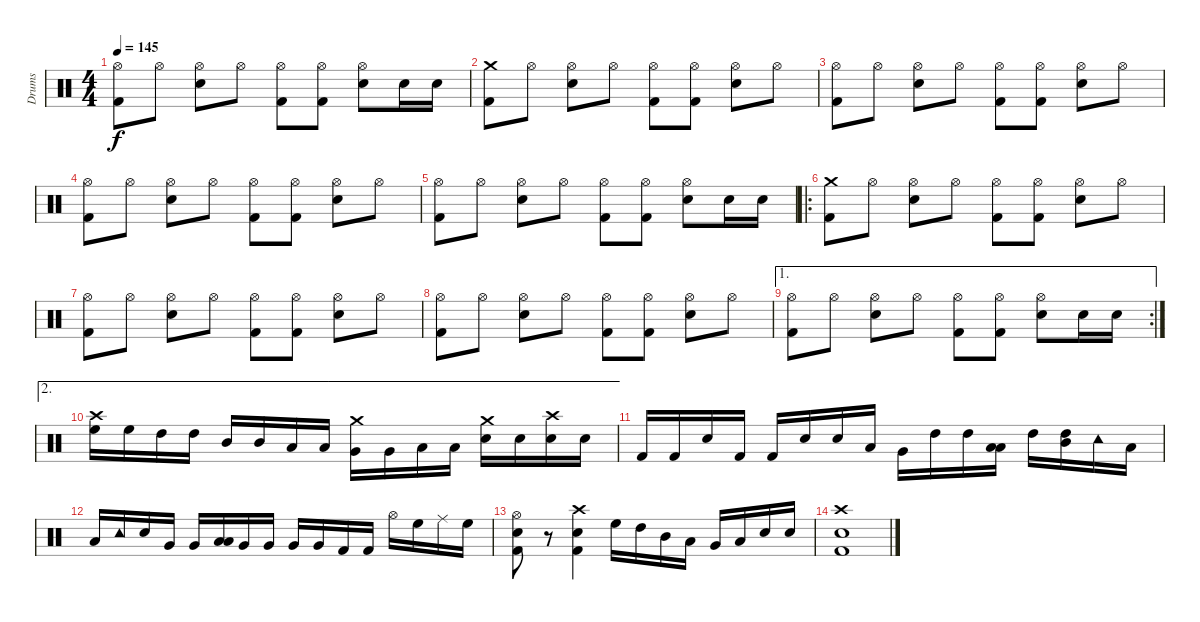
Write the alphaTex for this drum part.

\track ("Drums" "Drums") {instrument percussion}
\staff {score}
\articulation defaults
\ts (4 4)
\tempo 145
\clef neutral
\ks c
("Hi-Hat (open)" "Kick (hit) 2").8{dy f} "Hi-Hat (open)".8 ("Hi-Hat (open)" "Electric Snare (hit)").8 "Hi-Hat (open)".8 ("Hi-Hat (open)" "Kick (hit) 2").8 ("Hi-Hat (open)" "Kick (hit) 2").8 ("Hi-Hat (open)" "Electric Snare (hit)").8 "Electric Snare (hit)".16 "Electric Snare (hit)".16 |
("Crash medium (hit)" "Kick (hit) 2").8 "Hi-Hat (open)".8 ("Hi-Hat (open)" "Electric Snare (hit)").8 "Hi-Hat (open)".8 ("Hi-Hat (open)" "Kick (hit) 2").8 ("Hi-Hat (open)" "Kick (hit) 2").8 ("Hi-Hat (open)" "Electric Snare (hit)").8 "Hi-Hat (open)".8 |
("Hi-Hat (open)" "Kick (hit) 2").8 "Hi-Hat (open)".8 ("Hi-Hat (open)" "Electric Snare (hit)").8 "Hi-Hat (open)".8 ("Hi-Hat (open)" "Kick (hit) 2").8 ("Hi-Hat (open)" "Kick (hit) 2").8 ("Hi-Hat (open)" "Electric Snare (hit)").8 "Hi-Hat (open)".8 |
("Hi-Hat (open)" "Kick (hit) 2").8 "Hi-Hat (open)".8 ("Hi-Hat (open)" "Electric Snare (hit)").8 "Hi-Hat (open)".8 ("Hi-Hat (open)" "Kick (hit) 2").8 ("Hi-Hat (open)" "Kick (hit) 2").8 ("Hi-Hat (open)" "Electric Snare (hit)").8 "Hi-Hat (open)".8 |
("Hi-Hat (open)" "Kick (hit) 2").8 "Hi-Hat (open)".8 ("Hi-Hat (open)" "Electric Snare (hit)").8 "Hi-Hat (open)".8 ("Hi-Hat (open)" "Kick (hit) 2").8 ("Hi-Hat (open)" "Kick (hit) 2").8 ("Hi-Hat (open)" "Electric Snare (hit)").8 "Electric Snare (hit)".16 "Electric Snare (hit)".16 |
\ro
("Crash medium (hit)" "Kick (hit) 2").8 "Hi-Hat (open)".8 ("Hi-Hat (open)" "Electric Snare (hit)").8 "Hi-Hat (open)".8 ("Hi-Hat (open)" "Kick (hit) 2").8 ("Hi-Hat (open)" "Kick (hit) 2").8 ("Hi-Hat (open)" "Electric Snare (hit)").8 "Hi-Hat (open)".8 |
("Hi-Hat (open)" "Kick (hit) 2").8 "Hi-Hat (open)".8 ("Hi-Hat (open)" "Electric Snare (hit)").8 "Hi-Hat (open)".8 ("Hi-Hat (open)" "Kick (hit) 2").8 ("Hi-Hat (open)" "Kick (hit) 2").8 ("Hi-Hat (open)" "Electric Snare (hit)").8 "Hi-Hat (open)".8 |
("Hi-Hat (open)" "Kick (hit) 2").8 "Hi-Hat (open)".8 ("Hi-Hat (open)" "Electric Snare (hit)").8 "Hi-Hat (open)".8 ("Hi-Hat (open)" "Kick (hit) 2").8 ("Hi-Hat (open)" "Kick (hit) 2").8 ("Hi-Hat (open)" "Electric Snare (hit)").8 "Hi-Hat (open)".8 |
\ae 1
\rc 2
("Hi-Hat (open)" "Kick (hit) 2").8 "Hi-Hat (open)".8 ("Hi-Hat (open)" "Electric Snare (hit)").8 "Hi-Hat (open)".8 ("Hi-Hat (open)" "Kick (hit) 2").8 ("Hi-Hat (open)" "Kick (hit) 2").8 ("Hi-Hat (open)" "Electric Snare (hit)").8 "Electric Snare (hit)".16 "Electric Snare (hit)".16 |
\ae 2
("Crash high (hit)" "High Floor Tom (hit)").16 "High Floor Tom (hit)".16 "High Tom (hit)".16 "High Tom (hit)".16 "Mid Tom (hit)".16 "Mid Tom (hit)".16 "Low Tom (hit)".16 "Low Tom (hit)".16 ("Crash medium (hit)" "Very Low Tom (hit)").16 "Very Low Tom (hit)".16 "Low Floor Tom (hit)".16 "Low Floor Tom (hit)".16 ("Crash medium (hit)" "Electric Snare (hit)").16 "Electric Snare (hit)".16 ("Crash high (hit)" "Snare (hit) 2").16 "Snare (hit) 2".16 |
"Kick (hit) 2".16 "Kick (hit) 2".16 "Electric Snare (hit)".16 "Kick (hit) 2".16 "Kick (hit) 2".16 "Electric Snare (hit)".16 "Electric Snare (hit)".16 "Low Floor Tom (hit)".16 "Very Low Tom (hit)".16 "High Tom (hit)".16 "High Tom (hit)".16 ("Low Tom (hit)" "Low Tom (hit)").16 "High Tom (hit)".16 ("Mid Tom (hit)" "High Tom (hit)").16 "Tambourine (hit)".16 "Low Tom (hit)".16 |
"Low Tom (hit)".16 "Tambourine (hit)".16 "Electric Snare (hit)".16 "Very Low Tom (hit)".16 "Very Low Tom (hit)".16 ("Low Floor Tom (hit)" "Low Floor Tom (hit)").16 "Very Low Tom (hit)".16 "Very Low Tom (hit)".16 "Very Low Tom (hit)".16 "Very Low Tom (hit)".16 "Kick (hit) 2".16 "Kick (hit) 2".16 "Hi-Hat (open)".16 "High Floor Tom (hit)".16 "Ride (middle)".16 "High Floor Tom (hit)".16 |
("Hi-Hat (open)" "Electric Snare (hit)" "Kick (hit) 2").8 r.8 ("Crash high (hit)" "Electric Snare (hit)" "Kick (hit) 2").4 "High Floor Tom (hit)".16 "High Tom (hit)".16 "Mid Tom (hit)".16 "Low Tom (hit)".16 "Very Low Tom (hit)".16 "Low Floor Tom (hit)".16 "Electric Snare (hit)".16 "Electric Snare (hit)".16 |
("Crash high (hit)" "Electric Snare (hit)" "Kick (hit) 2").1
